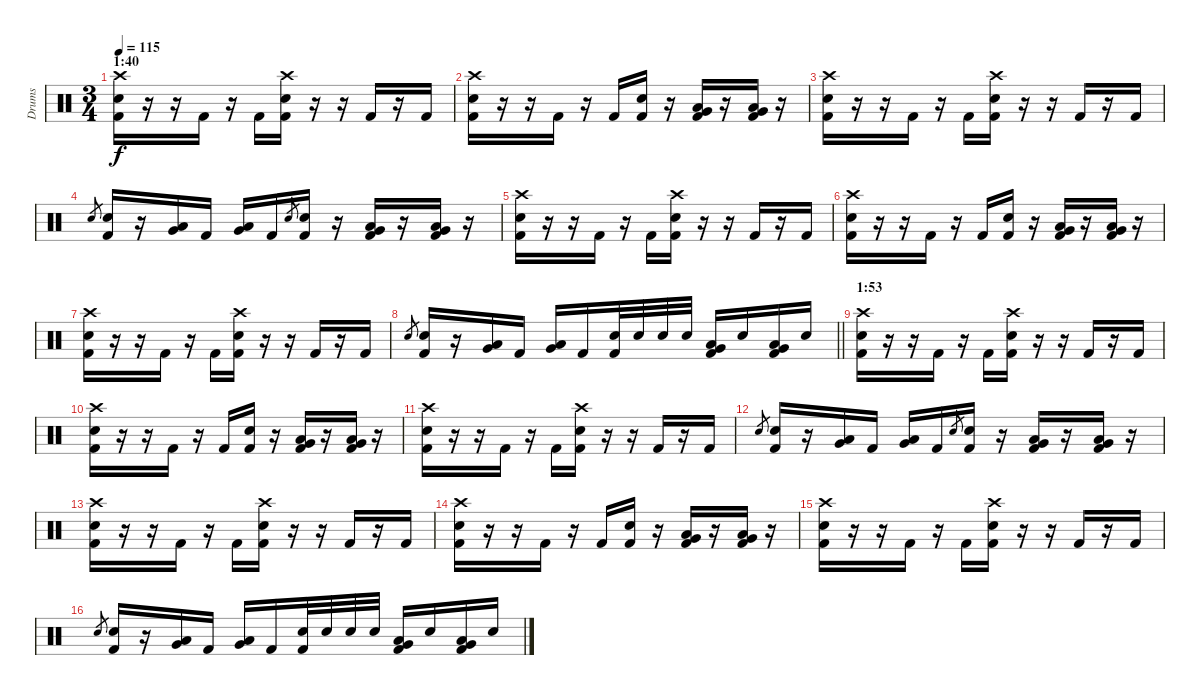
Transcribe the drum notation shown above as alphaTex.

\track ("Drums" "Drums") {instrument percussion}
\staff {score}
\articulation defaults
\ts (3 4)
\section ("" "1:40")
\tempo 115
\clef neutral
\ks c
("Crash high (hit)" "Electric Snare (hit)" "Kick (hit) 2").16{dy f} r.16 r.16 "Kick (hit) 2".16 r.16 "Kick (hit) 2".16 ("Crash high (hit)" "Electric Snare (hit)" "Kick (hit) 2").16 r.16 r.16 "Kick (hit) 2".16 r.16 "Kick (hit) 2".16 |
("Crash high (hit)" "Electric Snare (hit)" "Kick (hit) 2").16 r.16 r.16 "Kick (hit) 2".16 r.16 "Kick (hit) 2".16 ("Electric Snare (hit)" "Kick (hit) 2").16 r.16 ("Low Tom (hit)" "Very Low Tom (hit)" "Kick (hit) 2").16 r.16 ("Very Low Tom (hit)" "Low Floor Tom (hit)" "Kick (hit) 2").16 r.16 |
("Crash high (hit)" "Electric Snare (hit)" "Kick (hit) 2").16 r.16 r.16 "Kick (hit) 2".16 r.16 "Kick (hit) 2".16 ("Crash high (hit)" "Electric Snare (hit)" "Kick (hit) 2").16 r.16 r.16 "Kick (hit) 2".16 r.16 "Kick (hit) 2".16 |
"Electric Snare (hit)".8{gr} ("Electric Snare (hit)" "Kick (hit) 2").16 r.16 ("Low Tom (hit)" "Very Low Tom (hit)").16 "Kick (hit) 2".16 ("Low Floor Tom (hit)" "Very Low Tom (hit)").16 "Kick (hit) 2".16 "Electric Snare (hit)".8{gr} ("Electric Snare (hit)" "Kick (hit) 2").16 r.16 ("Low Tom (hit)" "Very Low Tom (hit)" "Kick (hit) 2").16 r.16 ("Very Low Tom (hit)" "Low Floor Tom (hit)" "Kick (hit) 2").16 r.16 |
("Crash high (hit)" "Electric Snare (hit)" "Kick (hit) 2").16 r.16 r.16 "Kick (hit) 2".16 r.16 "Kick (hit) 2".16 ("Crash high (hit)" "Electric Snare (hit)" "Kick (hit) 2").16 r.16 r.16 "Kick (hit) 2".16 r.16 "Kick (hit) 2".16 |
("Crash high (hit)" "Electric Snare (hit)" "Kick (hit) 2").16 r.16 r.16 "Kick (hit) 2".16 r.16 "Kick (hit) 2".16 ("Electric Snare (hit)" "Kick (hit) 2").16 r.16 ("Low Tom (hit)" "Very Low Tom (hit)" "Kick (hit) 2").16 r.16 ("Very Low Tom (hit)" "Low Floor Tom (hit)" "Kick (hit) 2").16 r.16 |
("Crash high (hit)" "Electric Snare (hit)" "Kick (hit) 2").16 r.16 r.16 "Kick (hit) 2".16 r.16 "Kick (hit) 2".16 ("Crash high (hit)" "Electric Snare (hit)" "Kick (hit) 2").16 r.16 r.16 "Kick (hit) 2".16 r.16 "Kick (hit) 2".16 |
\barLineRight lightlight "Electric Snare (hit)".8{gr}
("Electric Snare (hit)" "Kick (hit) 2").16 r.16 ("Low Tom (hit)" "Very Low Tom (hit)").16 "Kick (hit) 2".16 ("Low Floor Tom (hit)" "Very Low Tom (hit)").16 "Kick (hit) 2".16 ("Electric Snare (hit)" "Kick (hit) 2").32 "Electric Snare (hit)".32 "Electric Snare (hit)".32 "Electric Snare (hit)".32 ("Low Tom (hit)" "Very Low Tom (hit)" "Kick (hit) 2").16 "Electric Snare (hit)".16 ("Very Low Tom (hit)" "Low Floor Tom (hit)" "Kick (hit) 2").16 "Electric Snare (hit)".16 |
\section ("" "1:53")
("Crash high (hit)" "Electric Snare (hit)" "Kick (hit) 2").16 r.16 r.16 "Kick (hit) 2".16 r.16 "Kick (hit) 2".16 ("Crash high (hit)" "Electric Snare (hit)" "Kick (hit) 2").16 r.16 r.16 "Kick (hit) 2".16 r.16 "Kick (hit) 2".16 |
("Crash high (hit)" "Electric Snare (hit)" "Kick (hit) 2").16 r.16 r.16 "Kick (hit) 2".16 r.16 "Kick (hit) 2".16 ("Electric Snare (hit)" "Kick (hit) 2").16 r.16 ("Low Tom (hit)" "Very Low Tom (hit)" "Kick (hit) 2").16 r.16 ("Very Low Tom (hit)" "Low Floor Tom (hit)" "Kick (hit) 2").16 r.16 |
("Crash high (hit)" "Electric Snare (hit)" "Kick (hit) 2").16 r.16 r.16 "Kick (hit) 2".16 r.16 "Kick (hit) 2".16 ("Crash high (hit)" "Electric Snare (hit)" "Kick (hit) 2").16 r.16 r.16 "Kick (hit) 2".16 r.16 "Kick (hit) 2".16 |
"Electric Snare (hit)".8{gr} ("Electric Snare (hit)" "Kick (hit) 2").16 r.16 ("Low Tom (hit)" "Very Low Tom (hit)").16 "Kick (hit) 2".16 ("Low Floor Tom (hit)" "Very Low Tom (hit)").16 "Kick (hit) 2".16 "Electric Snare (hit)".8{gr} ("Electric Snare (hit)" "Kick (hit) 2").16 r.16 ("Low Tom (hit)" "Very Low Tom (hit)" "Kick (hit) 2").16 r.16 ("Very Low Tom (hit)" "Low Floor Tom (hit)" "Kick (hit) 2").16 r.16 |
("Crash high (hit)" "Electric Snare (hit)" "Kick (hit) 2").16 r.16 r.16 "Kick (hit) 2".16 r.16 "Kick (hit) 2".16 ("Crash high (hit)" "Electric Snare (hit)" "Kick (hit) 2").16 r.16 r.16 "Kick (hit) 2".16 r.16 "Kick (hit) 2".16 |
("Crash high (hit)" "Electric Snare (hit)" "Kick (hit) 2").16 r.16 r.16 "Kick (hit) 2".16 r.16 "Kick (hit) 2".16 ("Electric Snare (hit)" "Kick (hit) 2").16 r.16 ("Low Tom (hit)" "Very Low Tom (hit)" "Kick (hit) 2").16 r.16 ("Very Low Tom (hit)" "Low Floor Tom (hit)" "Kick (hit) 2").16 r.16 |
("Crash high (hit)" "Electric Snare (hit)" "Kick (hit) 2").16 r.16 r.16 "Kick (hit) 2".16 r.16 "Kick (hit) 2".16 ("Crash high (hit)" "Electric Snare (hit)" "Kick (hit) 2").16 r.16 r.16 "Kick (hit) 2".16 r.16 "Kick (hit) 2".16 |
"Electric Snare (hit)".8{gr} ("Electric Snare (hit)" "Kick (hit) 2").16 r.16 ("Low Tom (hit)" "Very Low Tom (hit)").16 "Kick (hit) 2".16 ("Low Floor Tom (hit)" "Very Low Tom (hit)").16 "Kick (hit) 2".16 ("Electric Snare (hit)" "Kick (hit) 2").32 "Electric Snare (hit)".32 "Electric Snare (hit)".32 "Electric Snare (hit)".32 ("Low Tom (hit)" "Very Low Tom (hit)" "Kick (hit) 2").16 "Electric Snare (hit)".16 ("Very Low Tom (hit)" "Low Floor Tom (hit)" "Kick (hit) 2").16 "Electric Snare (hit)".16
